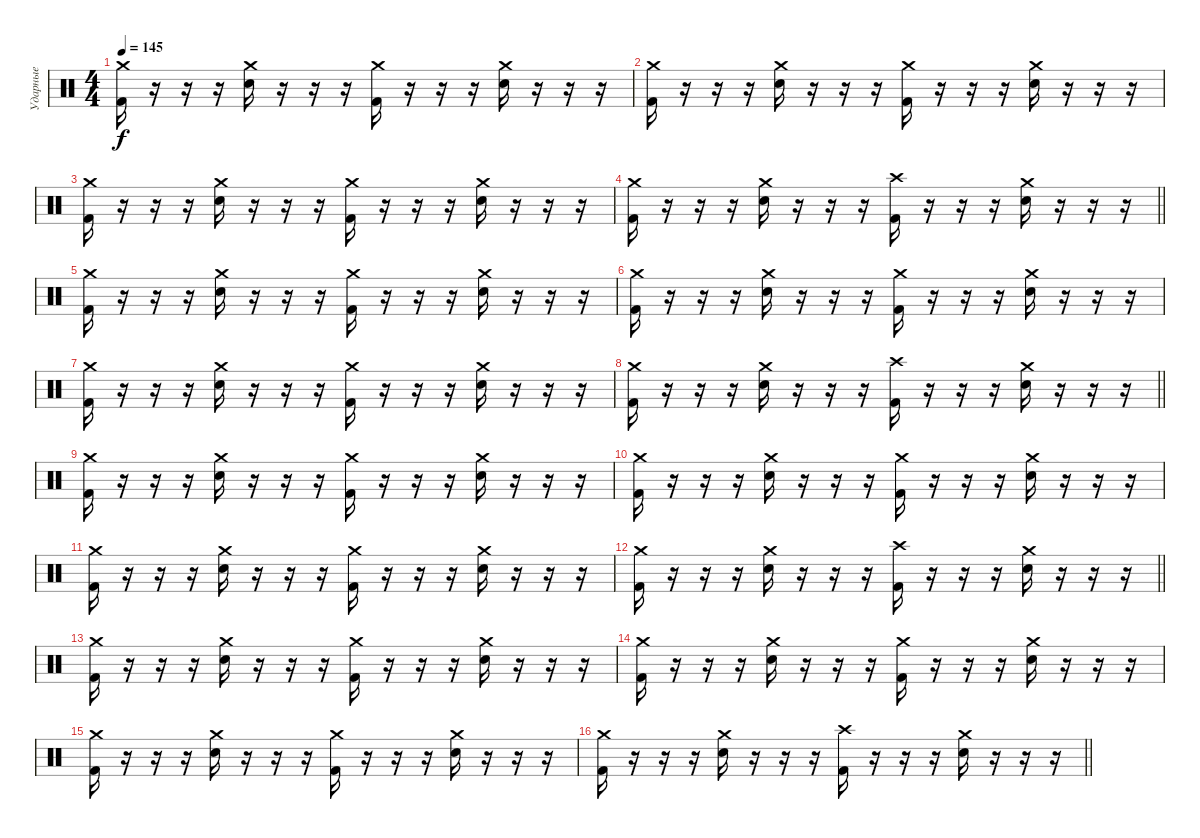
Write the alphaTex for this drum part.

\track ("Ударные" "Ударные") {instrument percussion}
\staff {score}
\articulation defaults
\ts (4 4)
\tempo 145
\clef neutral
\ks c
("Kick (hit) 2" "Crash medium (hit)").16{dy f} r.16 r.16 r.16 ("Snare (hit) 2" "Crash medium (hit)").16 r.16 r.16 r.16 ("Kick (hit) 2" "Crash medium (hit)").16 r.16 r.16 r.16 ("Snare (hit) 2" "Crash medium (hit)").16 r.16 r.16 r.16 |
("Kick (hit) 2" "Crash medium (hit)").16 r.16 r.16 r.16 ("Snare (hit) 2" "Crash medium (hit)").16 r.16 r.16 r.16 ("Kick (hit) 2" "Crash medium (hit)").16 r.16 r.16 r.16 ("Snare (hit) 2" "Crash medium (hit)").16 r.16 r.16 r.16 |
("Kick (hit) 2" "Crash medium (hit)").16 r.16 r.16 r.16 ("Snare (hit) 2" "Crash medium (hit)").16 r.16 r.16 r.16 ("Kick (hit) 2" "Crash medium (hit)").16 r.16 r.16 r.16 ("Snare (hit) 2" "Crash medium (hit)").16 r.16 r.16 r.16 |
\barLineRight lightlight
("Kick (hit) 2" "Crash medium (hit)").16 r.16 r.16 r.16 ("Snare (hit) 2" "Crash medium (hit)").16 r.16 r.16 r.16 ("Kick (hit) 2" "Crash high (hit)").16 r.16 r.16 r.16 ("Snare (hit) 2" "Crash medium (hit)").16 r.16 r.16 r.16 |
("Kick (hit) 2" "Crash medium (hit)").16 r.16 r.16 r.16 ("Snare (hit) 2" "Crash medium (hit)").16 r.16 r.16 r.16 ("Kick (hit) 2" "Crash medium (hit)").16 r.16 r.16 r.16 ("Snare (hit) 2" "Crash medium (hit)").16 r.16 r.16 r.16 |
("Kick (hit) 2" "Crash medium (hit)").16 r.16 r.16 r.16 ("Snare (hit) 2" "Crash medium (hit)").16 r.16 r.16 r.16 ("Kick (hit) 2" "Crash medium (hit)").16 r.16 r.16 r.16 ("Snare (hit) 2" "Crash medium (hit)").16 r.16 r.16 r.16 |
("Kick (hit) 2" "Crash medium (hit)").16 r.16 r.16 r.16 ("Snare (hit) 2" "Crash medium (hit)").16 r.16 r.16 r.16 ("Kick (hit) 2" "Crash medium (hit)").16 r.16 r.16 r.16 ("Snare (hit) 2" "Crash medium (hit)").16 r.16 r.16 r.16 |
\barLineRight lightlight
("Kick (hit) 2" "Crash medium (hit)").16 r.16 r.16 r.16 ("Snare (hit) 2" "Crash medium (hit)").16 r.16 r.16 r.16 ("Kick (hit) 2" "Crash high (hit)").16 r.16 r.16 r.16 ("Snare (hit) 2" "Crash medium (hit)").16 r.16 r.16 r.16 |
("Kick (hit) 2" "Crash medium (hit)").16{volume 7} r.16 r.16 r.16 ("Snare (hit) 2" "Crash medium (hit)").16 r.16 r.16 r.16 ("Kick (hit) 2" "Crash medium (hit)").16 r.16 r.16 r.16 ("Snare (hit) 2" "Crash medium (hit)").16 r.16 r.16 r.16 |
("Kick (hit) 2" "Crash medium (hit)").16 r.16 r.16 r.16 ("Snare (hit) 2" "Crash medium (hit)").16 r.16 r.16 r.16 ("Kick (hit) 2" "Crash medium (hit)").16 r.16 r.16 r.16 ("Snare (hit) 2" "Crash medium (hit)").16 r.16 r.16 r.16 |
("Kick (hit) 2" "Crash medium (hit)").16 r.16 r.16 r.16 ("Snare (hit) 2" "Crash medium (hit)").16 r.16 r.16 r.16 ("Kick (hit) 2" "Crash medium (hit)").16 r.16 r.16 r.16 ("Snare (hit) 2" "Crash medium (hit)").16 r.16 r.16 r.16 |
\barLineRight lightlight
("Kick (hit) 2" "Crash medium (hit)").16 r.16 r.16 r.16 ("Snare (hit) 2" "Crash medium (hit)").16 r.16 r.16 r.16 ("Kick (hit) 2" "Crash high (hit)").16 r.16 r.16 r.16 ("Snare (hit) 2" "Crash medium (hit)").16 r.16 r.16 r.16 |
("Kick (hit) 2" "Crash medium (hit)").16{volume 0} r.16 r.16 r.16 ("Snare (hit) 2" "Crash medium (hit)").16 r.16 r.16 r.16 ("Kick (hit) 2" "Crash medium (hit)").16 r.16 r.16 r.16 ("Snare (hit) 2" "Crash medium (hit)").16 r.16 r.16 r.16 |
("Kick (hit) 2" "Crash medium (hit)").16 r.16 r.16 r.16 ("Snare (hit) 2" "Crash medium (hit)").16 r.16 r.16 r.16 ("Kick (hit) 2" "Crash medium (hit)").16 r.16 r.16 r.16 ("Snare (hit) 2" "Crash medium (hit)").16 r.16 r.16 r.16 |
("Kick (hit) 2" "Crash medium (hit)").16 r.16 r.16 r.16 ("Snare (hit) 2" "Crash medium (hit)").16 r.16 r.16 r.16 ("Kick (hit) 2" "Crash medium (hit)").16 r.16 r.16 r.16 ("Snare (hit) 2" "Crash medium (hit)").16 r.16 r.16 r.16 |
\barLineRight lightlight
("Kick (hit) 2" "Crash medium (hit)").16 r.16 r.16 r.16 ("Snare (hit) 2" "Crash medium (hit)").16 r.16 r.16 r.16 ("Kick (hit) 2" "Crash high (hit)").16 r.16 r.16 r.16 ("Snare (hit) 2" "Crash medium (hit)").16 r.16 r.16 r.16
